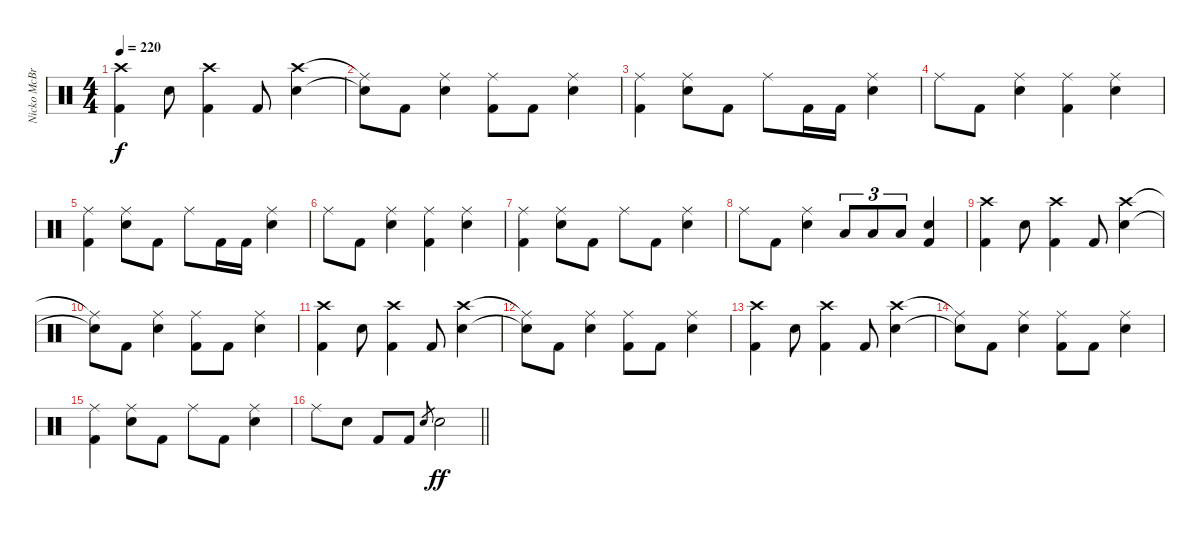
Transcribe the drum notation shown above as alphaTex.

\track ("Nicko McBrain" "Nicko McBr") {instrument percussion}
\staff {score}
\articulation defaults
\ts (4 4)
\tempo 220
\clef neutral
\ks c
("Crash high (hit)" "Kick (hit) 2").4{dy f} "Electric Snare (hit)".8 ("Crash high (hit)" "Kick (hit) 2").4 "Kick (hit) 2".8 ("Crash high (hit)" "Electric Snare (hit)").4 |
("Ride (middle)"{t} "Snare (hit)"{t}).8 "Kick (hit) 2".8 ("Ride (middle)" "Electric Snare (hit)").4 ("Ride (middle)" "Kick (hit) 2").8 "Kick (hit) 2".8 ("Ride (middle)" "Electric Snare (hit)").4 |
("Ride (middle)" "Kick (hit) 2").4 ("Ride (middle)" "Electric Snare (hit)").8 "Kick (hit) 2".8 "Ride (middle)".8 "Kick (hit) 2".16 "Kick (hit) 2".16 ("Ride (middle)" "Electric Snare (hit)").4 |
"Ride (middle)".8 "Kick (hit) 2".8 ("Ride (middle)" "Electric Snare (hit)").4 ("Ride (middle)" "Kick (hit) 2").4 ("Ride (middle)" "Electric Snare (hit)").4 |
("Ride (middle)" "Kick (hit) 2").4 ("Ride (middle)" "Electric Snare (hit)").8 "Kick (hit) 2".8 "Ride (middle)".8 "Kick (hit) 2".16 "Kick (hit) 2".16 ("Ride (middle)" "Electric Snare (hit)").4 |
"Ride (middle)".8 "Kick (hit) 2".8 ("Ride (middle)" "Electric Snare (hit)").4 ("Ride (middle)" "Kick (hit) 2").4 ("Ride (middle)" "Electric Snare (hit)").4 |
("Ride (middle)" "Kick (hit) 2").4 ("Ride (middle)" "Electric Snare (hit)").8 "Kick (hit) 2".8 "Ride (middle)".8 "Kick (hit) 2".8 ("Ride (middle)" "Electric Snare (hit)").4 |
"Ride (middle)".8 "Kick (hit) 2".8 ("Ride (middle)" "Electric Snare (hit)").4 "Low Tom (hit)".8{tu (3 2)} "Low Tom (hit)".8{tu (3 2)} "Low Tom (hit)".8{tu (3 2)} ("Electric Snare (hit)" "Kick (hit) 2").4 |
("Crash high (hit)" "Kick (hit) 2").4 "Electric Snare (hit)".8 ("Crash high (hit)" "Kick (hit) 2").4 "Kick (hit) 2".8 ("Crash high (hit)" "Electric Snare (hit)").4 |
("Ride (middle)"{t} "Snare (hit)"{t}).8 "Kick (hit) 2".8 ("Ride (middle)" "Electric Snare (hit)").4 ("Ride (middle)" "Kick (hit) 2").8 "Kick (hit) 2".8 ("Ride (middle)" "Electric Snare (hit)").4 |
("Crash high (hit)" "Kick (hit) 2").4 "Electric Snare (hit)".8 ("Crash high (hit)" "Kick (hit) 2").4 "Kick (hit) 2".8 ("Crash high (hit)" "Electric Snare (hit)").4 |
("Ride (middle)"{t} "Snare (hit)"{t}).8 "Kick (hit) 2".8 ("Ride (middle)" "Electric Snare (hit)").4 ("Ride (middle)" "Kick (hit) 2").8 "Kick (hit) 2".8 ("Ride (middle)" "Electric Snare (hit)").4 |
("Crash high (hit)" "Kick (hit) 2").4 "Electric Snare (hit)".8 ("Crash high (hit)" "Kick (hit) 2").4 "Kick (hit) 2".8 ("Crash high (hit)" "Electric Snare (hit)").4 |
("Ride (middle)"{t} "Snare (hit)"{t}).8 "Kick (hit) 2".8 ("Ride (middle)" "Electric Snare (hit)").4 ("Ride (middle)" "Kick (hit) 2").8 "Kick (hit) 2".8 ("Ride (middle)" "Electric Snare (hit)").4 |
("Ride (middle)" "Kick (hit) 2").4 ("Ride (middle)" "Electric Snare (hit)").8 "Kick (hit) 2".8 "Ride (middle)".8 "Kick (hit) 2".8 ("Ride (middle)" "Electric Snare (hit)").4 |
\barLineRight lightlight "Ride (middle)".8 "Electric Snare (hit)".8 "Kick (hit) 2".8 "Kick (hit) 2".8 "Electric Snare (hit)".8{gr} "Electric Snare (hit)".2{dy ff}
